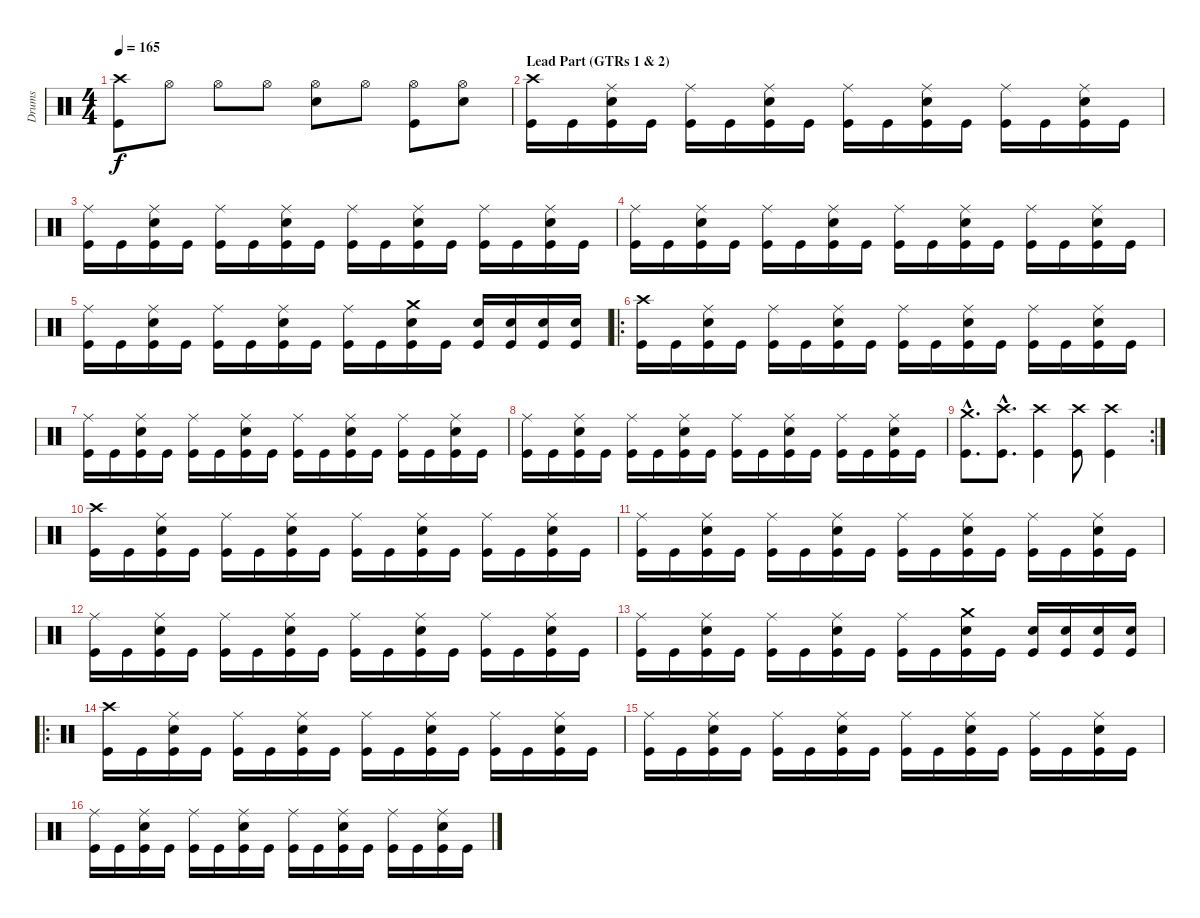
\track ("Drums" "Drums") {instrument percussion}
\staff {score}
\articulation defaults
\ts (4 4)
\tempo 165
\clef neutral
\ks c
("Crash high (hit)" "Kick (hit)").8{dy f} "Hi-Hat (open)".8 "Hi-Hat (open)".8 "Hi-Hat (open)".8 ("Hi-Hat (open)" "Snare (hit) 2").8 "Hi-Hat (open)".8 ("Hi-Hat (open)" "Kick (hit)").8 ("Hi-Hat (open)" "Snare (hit) 2").8 |
\section ("" "Lead Part (GTRs 1 & 2)")
("Crash high (hit)" "Kick (hit)").16 "Kick (hit)".16 ("Ride (middle)" "Snare (hit) 2" "Kick (hit)").16 "Kick (hit)".16 ("Ride (middle)" "Kick (hit)").16 "Kick (hit)".16 ("Ride (middle)" "Snare (hit) 2" "Kick (hit)").16 "Kick (hit)".16 ("Ride (middle)" "Kick (hit)").16 "Kick (hit)".16 ("Ride (middle)" "Snare (hit) 2" "Kick (hit)").16 "Kick (hit)".16 ("Ride (middle)" "Kick (hit)").16 "Kick (hit)".16 ("Ride (middle)" "Snare (hit) 2" "Kick (hit)").16 "Kick (hit)".16 |
("Ride (middle)" "Kick (hit)").16 "Kick (hit)".16 ("Ride (middle)" "Snare (hit) 2" "Kick (hit)").16 "Kick (hit)".16 ("Ride (middle)" "Kick (hit)").16 "Kick (hit)".16 ("Ride (middle)" "Snare (hit) 2" "Kick (hit)").16 "Kick (hit)".16 ("Ride (middle)" "Kick (hit)").16 "Kick (hit)".16 ("Ride (middle)" "Snare (hit) 2" "Kick (hit)").16 "Kick (hit)".16 ("Ride (middle)" "Kick (hit)").16 "Kick (hit)".16 ("Ride (middle)" "Snare (hit) 2" "Kick (hit)").16 "Kick (hit)".16 |
("Ride (middle)" "Kick (hit)").16 "Kick (hit)".16 ("Ride (middle)" "Snare (hit) 2" "Kick (hit)").16 "Kick (hit)".16 ("Ride (middle)" "Kick (hit)").16 "Kick (hit)".16 ("Ride (middle)" "Snare (hit) 2" "Kick (hit)").16 "Kick (hit)".16 ("Ride (middle)" "Kick (hit)").16 "Kick (hit)".16 ("Ride (middle)" "Snare (hit) 2" "Kick (hit)").16 "Kick (hit)".16 ("Ride (middle)" "Kick (hit)").16 "Kick (hit)".16 ("Ride (middle)" "Snare (hit) 2" "Kick (hit)").16 "Kick (hit)".16 |
("Ride (middle)" "Kick (hit)").16 "Kick (hit)".16 ("Ride (middle)" "Snare (hit) 2" "Kick (hit)").16 "Kick (hit)".16 ("Ride (middle)" "Kick (hit)").16 "Kick (hit)".16 ("Ride (middle)" "Snare (hit) 2" "Kick (hit)").16 "Kick (hit)".16 ("Ride (middle)" "Kick (hit)").16 "Kick (hit)".16 ("Crash medium (hit)" "Snare (hit) 2" "Kick (hit)").16 "Kick (hit)".16 ("Snare (hit) 2" "Kick (hit)").16 ("Snare (hit) 2" "Kick (hit)").16 ("Snare (hit) 2" "Kick (hit)").16 ("Snare (hit) 2" "Kick (hit)").16 |
\ro
("Crash high (hit)" "Kick (hit)").16 "Kick (hit)".16 ("Ride (middle)" "Snare (hit) 2" "Kick (hit)").16 "Kick (hit)".16 ("Ride (middle)" "Kick (hit)").16 "Kick (hit)".16 ("Ride (middle)" "Snare (hit) 2" "Kick (hit)").16 "Kick (hit)".16 ("Ride (middle)" "Kick (hit)").16 "Kick (hit)".16 ("Ride (middle)" "Snare (hit) 2" "Kick (hit)").16 "Kick (hit)".16 ("Ride (middle)" "Kick (hit)").16 "Kick (hit)".16 ("Ride (middle)" "Snare (hit) 2" "Kick (hit)").16 "Kick (hit)".16 |
("Ride (middle)" "Kick (hit)").16 "Kick (hit)".16 ("Ride (middle)" "Snare (hit) 2" "Kick (hit)").16 "Kick (hit)".16 ("Ride (middle)" "Kick (hit)").16 "Kick (hit)".16 ("Ride (middle)" "Snare (hit) 2" "Kick (hit)").16 "Kick (hit)".16 ("Ride (middle)" "Kick (hit)").16 "Kick (hit)".16 ("Ride (middle)" "Snare (hit) 2" "Kick (hit)").16 "Kick (hit)".16 ("Ride (middle)" "Kick (hit)").16 "Kick (hit)".16 ("Ride (middle)" "Snare (hit) 2" "Kick (hit)").16 "Kick (hit)".16 |
("Ride (middle)" "Kick (hit)").16 "Kick (hit)".16 ("Ride (middle)" "Snare (hit) 2" "Kick (hit)").16 "Kick (hit)".16 ("Ride (middle)" "Kick (hit)").16 "Kick (hit)".16 ("Ride (middle)" "Snare (hit) 2" "Kick (hit)").16 "Kick (hit)".16 ("Ride (middle)" "Kick (hit)").16 "Kick (hit)".16 ("Ride (middle)" "Snare (hit) 2" "Kick (hit)").16 "Kick (hit)".16 ("Ride (middle)" "Kick (hit)").16 "Kick (hit)".16 ("Ride (middle)" "Snare (hit) 2" "Kick (hit)").16 "Kick (hit)".16 |
\rc 2
("Crash medium (hit)"{hac} "Kick (hit)"{hac}).8{d} ("Crash high (hit)"{hac} "Kick (hit)"{hac}).8{d} ("Crash high (hit)" "Kick (hit)").4 ("Crash high (hit)" "Kick (hit)").8 ("Crash high (hit)" "Kick (hit)").4 |
("Crash high (hit)" "Kick (hit)").16 "Kick (hit)".16 ("Ride (middle)" "Snare (hit) 2" "Kick (hit)").16 "Kick (hit)".16 ("Ride (middle)" "Kick (hit)").16 "Kick (hit)".16 ("Ride (middle)" "Snare (hit) 2" "Kick (hit)").16 "Kick (hit)".16 ("Ride (middle)" "Kick (hit)").16 "Kick (hit)".16 ("Ride (middle)" "Snare (hit) 2" "Kick (hit)").16 "Kick (hit)".16 ("Ride (middle)" "Kick (hit)").16 "Kick (hit)".16 ("Ride (middle)" "Snare (hit) 2" "Kick (hit)").16 "Kick (hit)".16 |
("Ride (middle)" "Kick (hit)").16 "Kick (hit)".16 ("Ride (middle)" "Snare (hit) 2" "Kick (hit)").16 "Kick (hit)".16 ("Ride (middle)" "Kick (hit)").16 "Kick (hit)".16 ("Ride (middle)" "Snare (hit) 2" "Kick (hit)").16 "Kick (hit)".16 ("Ride (middle)" "Kick (hit)").16 "Kick (hit)".16 ("Ride (middle)" "Snare (hit) 2" "Kick (hit)").16 "Kick (hit)".16 ("Ride (middle)" "Kick (hit)").16 "Kick (hit)".16 ("Ride (middle)" "Snare (hit) 2" "Kick (hit)").16 "Kick (hit)".16 |
("Ride (middle)" "Kick (hit)").16 "Kick (hit)".16 ("Ride (middle)" "Snare (hit) 2" "Kick (hit)").16 "Kick (hit)".16 ("Ride (middle)" "Kick (hit)").16 "Kick (hit)".16 ("Ride (middle)" "Snare (hit) 2" "Kick (hit)").16 "Kick (hit)".16 ("Ride (middle)" "Kick (hit)").16 "Kick (hit)".16 ("Ride (middle)" "Snare (hit) 2" "Kick (hit)").16 "Kick (hit)".16 ("Ride (middle)" "Kick (hit)").16 "Kick (hit)".16 ("Ride (middle)" "Snare (hit) 2" "Kick (hit)").16 "Kick (hit)".16 |
("Ride (middle)" "Kick (hit)").16 "Kick (hit)".16 ("Ride (middle)" "Snare (hit) 2" "Kick (hit)").16 "Kick (hit)".16 ("Ride (middle)" "Kick (hit)").16 "Kick (hit)".16 ("Ride (middle)" "Snare (hit) 2" "Kick (hit)").16 "Kick (hit)".16 ("Ride (middle)" "Kick (hit)").16 "Kick (hit)".16 ("Crash medium (hit)" "Snare (hit) 2" "Kick (hit)").16 "Kick (hit)".16 ("Snare (hit) 2" "Kick (hit)").16 ("Snare (hit) 2" "Kick (hit)").16 ("Snare (hit) 2" "Kick (hit)").16 ("Snare (hit) 2" "Kick (hit)").16 |
\ro
("Crash high (hit)" "Kick (hit)").16 "Kick (hit)".16 ("Ride (middle)" "Snare (hit) 2" "Kick (hit)").16 "Kick (hit)".16 ("Ride (middle)" "Kick (hit)").16 "Kick (hit)".16 ("Ride (middle)" "Snare (hit) 2" "Kick (hit)").16 "Kick (hit)".16 ("Ride (middle)" "Kick (hit)").16 "Kick (hit)".16 ("Ride (middle)" "Snare (hit) 2" "Kick (hit)").16 "Kick (hit)".16 ("Ride (middle)" "Kick (hit)").16 "Kick (hit)".16 ("Ride (middle)" "Snare (hit) 2" "Kick (hit)").16 "Kick (hit)".16 |
("Ride (middle)" "Kick (hit)").16 "Kick (hit)".16 ("Ride (middle)" "Snare (hit) 2" "Kick (hit)").16 "Kick (hit)".16 ("Ride (middle)" "Kick (hit)").16 "Kick (hit)".16 ("Ride (middle)" "Snare (hit) 2" "Kick (hit)").16 "Kick (hit)".16 ("Ride (middle)" "Kick (hit)").16 "Kick (hit)".16 ("Ride (middle)" "Snare (hit) 2" "Kick (hit)").16 "Kick (hit)".16 ("Ride (middle)" "Kick (hit)").16 "Kick (hit)".16 ("Ride (middle)" "Snare (hit) 2" "Kick (hit)").16 "Kick (hit)".16 |
("Ride (middle)" "Kick (hit)").16 "Kick (hit)".16 ("Ride (middle)" "Snare (hit) 2" "Kick (hit)").16 "Kick (hit)".16 ("Ride (middle)" "Kick (hit)").16 "Kick (hit)".16 ("Ride (middle)" "Snare (hit) 2" "Kick (hit)").16 "Kick (hit)".16 ("Ride (middle)" "Kick (hit)").16 "Kick (hit)".16 ("Ride (middle)" "Snare (hit) 2" "Kick (hit)").16 "Kick (hit)".16 ("Ride (middle)" "Kick (hit)").16 "Kick (hit)".16 ("Ride (middle)" "Snare (hit) 2" "Kick (hit)").16 "Kick (hit)".16
